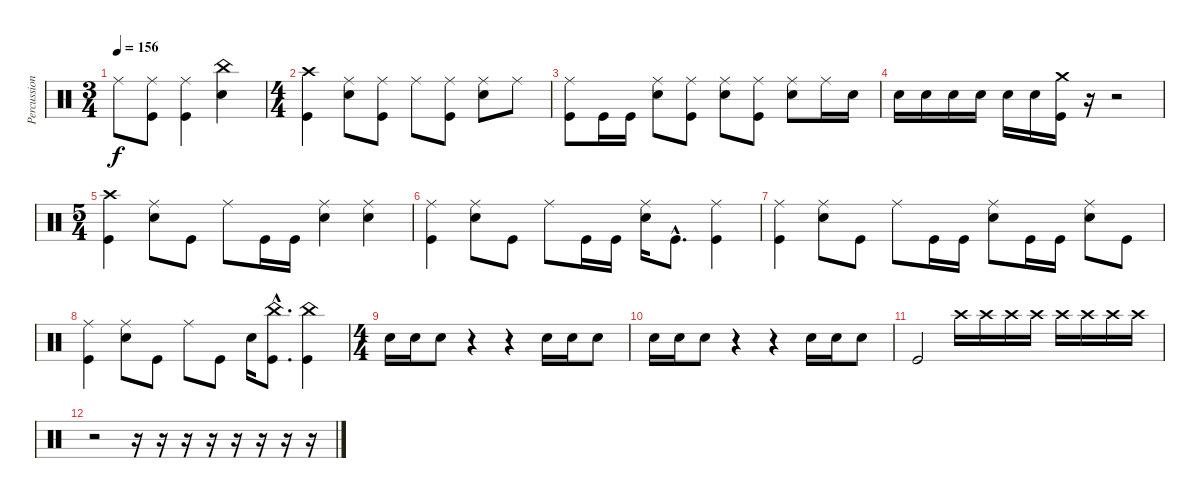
\track ("Percussion" "Percussion") {instrument percussion}
\staff {score}
\articulation defaults
\ts (3 4)
\tempo 156
\clef neutral
\ks c "Ride (middle)".8{dy f}
("Ride (middle)" "Kick (hit)").8 ("Ride (middle)" "Kick (hit)").4 ("China (hit)" "Electric Snare (hit)").4 |
\ts (4 4)
("Crash high (hit)" "Kick (hit)").4 ("Ride (middle)" "Electric Snare (hit)").8 ("Ride (middle)" "Kick (hit)").8 "Ride (middle)".8 ("Ride (middle)" "Kick (hit)").8 ("Ride (middle)" "Electric Snare (hit)").8 "Ride (middle)".8 |
("Ride (middle)" "Kick (hit)").8 "Kick (hit)".16 "Kick (hit)".16 ("Ride (middle)" "Electric Snare (hit)").8 ("Ride (middle)" "Kick (hit)").8 ("Ride (middle)" "Electric Snare (hit)").8 ("Ride (middle)" "Kick (hit)").8 ("Ride (middle)" "Electric Snare (hit)").8 "Ride (middle)".16 "Electric Snare (hit)".16 |
"Electric Snare (hit)".16 "Electric Snare (hit)".16 "Electric Snare (hit)".16 "Electric Snare (hit)".16 "Electric Snare (hit)".16 "Electric Snare (hit)".16 ("Crash medium (hit)" "Kick (hit)").16 r.16 r.2 |
\ts (5 4)
("Crash high (hit)" "Kick (hit)").4 ("Ride (middle)" "Electric Snare (hit)").8 "Kick (hit)".8 "Ride (middle)".8 "Kick (hit)".16 "Kick (hit)".16 ("Ride (middle)" "Electric Snare (hit)").4 ("Ride (middle)" "Electric Snare (hit)").4 |
("Ride (middle)" "Kick (hit)").4 ("Ride (middle)" "Electric Snare (hit)").8 "Kick (hit)".8 "Ride (middle)".8 "Kick (hit)".16 "Kick (hit)".16 ("Ride (middle)" "Electric Snare (hit)").16 "Kick (hit)"{hac}.8{d} ("Ride (middle)" "Kick (hit)").4 |
("Ride (middle)" "Kick (hit)").4 ("Ride (middle)" "Electric Snare (hit)").8 "Kick (hit)".8 "Ride (middle)".8 "Kick (hit)".16 "Kick (hit)".16 ("Ride (middle)" "Electric Snare (hit)").8 "Kick (hit)".16 "Kick (hit)".16 ("Ride (middle)" "Electric Snare (hit)").8 "Kick (hit)".8 |
("Ride (middle)" "Kick (hit)").4 ("Ride (middle)" "Electric Snare (hit)").8 "Kick (hit)".8 "Ride (middle)".8 "Kick (hit)".8 "Electric Snare (hit)".16 ("China (hit)"{hac} "Kick (hit)"{hac}).8{d} ("China (hit)" "Kick (hit)").4 |
\ts (4 4)
"Electric Snare (hit)".16 "Electric Snare (hit)".16 "Electric Snare (hit)".8 r.4 r.4 "Electric Snare (hit)".16 "Electric Snare (hit)".16 "Electric Snare (hit)".8 |
"Electric Snare (hit)".16 "Electric Snare (hit)".16 "Electric Snare (hit)".8 r.4 r.4 "Electric Snare (hit)".16 "Electric Snare (hit)".16 "Electric Snare (hit)".8 |
"Kick (hit)".2 "Crash high (hit)".16 "Crash high (hit)".16 "Crash high (hit)".16 "Crash high (hit)".16 "Crash high (hit)".16 "Crash high (hit)".16 "Crash high (hit)".16 "Crash high (hit)".16 |
r.2 r.16 r.16 r.16 r.16 r.16 r.16 r.16 r.16
